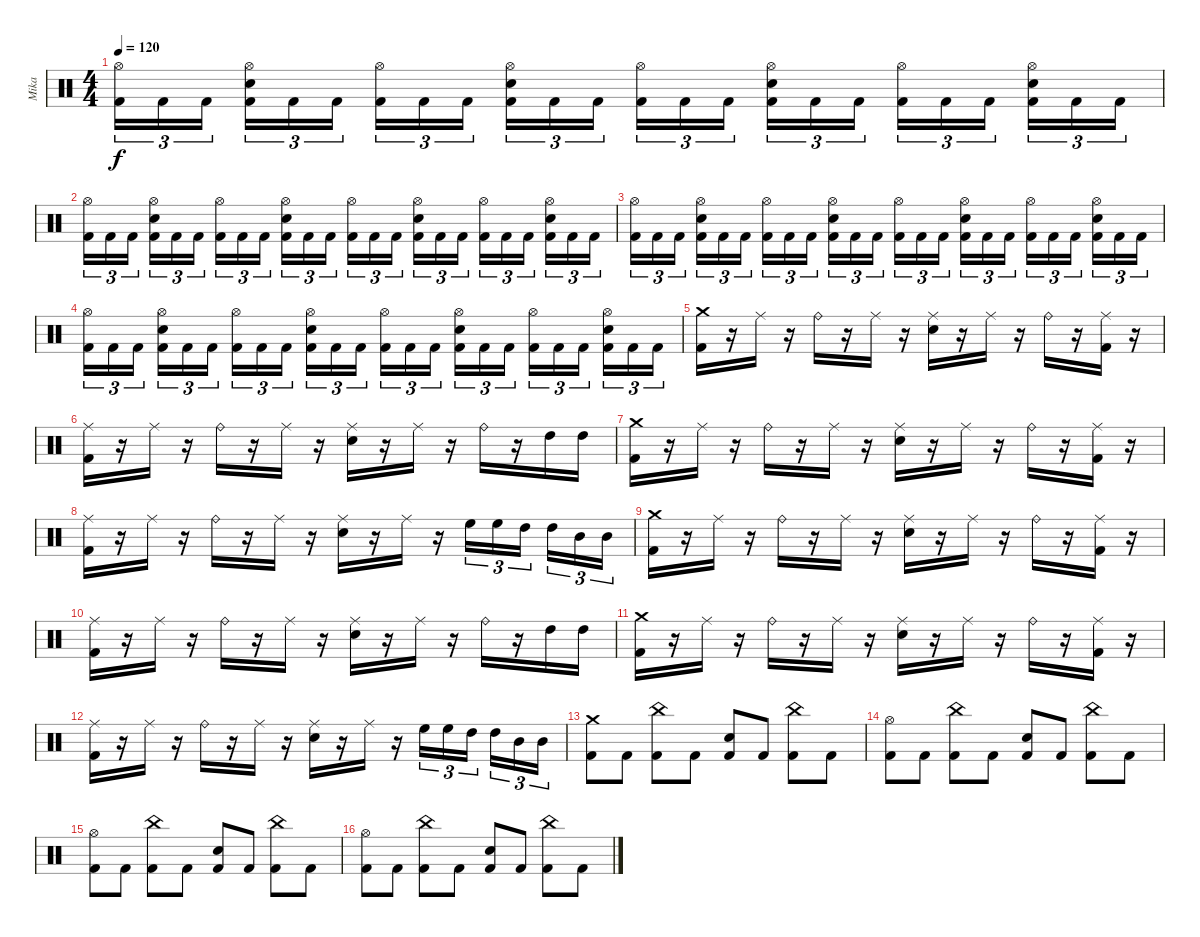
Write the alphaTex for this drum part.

\track ("Mika" "Mika") {instrument percussion}
\staff {score}
\articulation defaults
\ts (4 4)
\tempo 120
\clef neutral
\ks c
("Hi-Hat (open)" "Kick (hit) 2").16{tu (3 2) dy f} "Kick (hit) 2".16{tu (3 2)} "Kick (hit) 2".16{tu (3 2) beam splitsecondary} ("Hi-Hat (open)" "Electric Snare (hit)" "Kick (hit) 2").16{tu (3 2)} "Kick (hit) 2".16{tu (3 2)} "Kick (hit) 2".16{tu (3 2)} ("Hi-Hat (open)" "Kick (hit) 2").16{tu (3 2)} "Kick (hit) 2".16{tu (3 2)} "Kick (hit) 2".16{tu (3 2) beam splitsecondary} ("Hi-Hat (open)" "Electric Snare (hit)" "Kick (hit) 2").16{tu (3 2)} "Kick (hit) 2".16{tu (3 2)} "Kick (hit) 2".16{tu (3 2)} ("Hi-Hat (open)" "Kick (hit) 2").16{tu (3 2)} "Kick (hit) 2".16{tu (3 2)} "Kick (hit) 2".16{tu (3 2) beam splitsecondary} ("Hi-Hat (open)" "Electric Snare (hit)" "Kick (hit) 2").16{tu (3 2)} "Kick (hit) 2".16{tu (3 2)} "Kick (hit) 2".16{tu (3 2)} ("Hi-Hat (open)" "Kick (hit) 2").16{tu (3 2)} "Kick (hit) 2".16{tu (3 2)} "Kick (hit) 2".16{tu (3 2) beam splitsecondary} ("Hi-Hat (open)" "Electric Snare (hit)" "Kick (hit) 2").16{tu (3 2)} "Kick (hit) 2".16{tu (3 2)} "Kick (hit) 2".16{tu (3 2)} |
("Hi-Hat (open)" "Kick (hit) 2").16{tu (3 2)} "Kick (hit) 2".16{tu (3 2)} "Kick (hit) 2".16{tu (3 2) beam splitsecondary} ("Hi-Hat (open)" "Electric Snare (hit)" "Kick (hit) 2").16{tu (3 2)} "Kick (hit) 2".16{tu (3 2)} "Kick (hit) 2".16{tu (3 2)} ("Hi-Hat (open)" "Kick (hit) 2").16{tu (3 2)} "Kick (hit) 2".16{tu (3 2)} "Kick (hit) 2".16{tu (3 2) beam splitsecondary} ("Hi-Hat (open)" "Electric Snare (hit)" "Kick (hit) 2").16{tu (3 2)} "Kick (hit) 2".16{tu (3 2)} "Kick (hit) 2".16{tu (3 2)} ("Hi-Hat (open)" "Kick (hit) 2").16{tu (3 2)} "Kick (hit) 2".16{tu (3 2)} "Kick (hit) 2".16{tu (3 2) beam splitsecondary} ("Hi-Hat (open)" "Electric Snare (hit)" "Kick (hit) 2").16{tu (3 2)} "Kick (hit) 2".16{tu (3 2)} "Kick (hit) 2".16{tu (3 2)} ("Hi-Hat (open)" "Kick (hit) 2").16{tu (3 2)} "Kick (hit) 2".16{tu (3 2)} "Kick (hit) 2".16{tu (3 2) beam splitsecondary} ("Hi-Hat (open)" "Electric Snare (hit)" "Kick (hit) 2").16{tu (3 2)} "Kick (hit) 2".16{tu (3 2)} "Kick (hit) 2".16{tu (3 2)} |
("Hi-Hat (open)" "Kick (hit) 2").16{tu (3 2)} "Kick (hit) 2".16{tu (3 2)} "Kick (hit) 2".16{tu (3 2) beam splitsecondary} ("Hi-Hat (open)" "Electric Snare (hit)" "Kick (hit) 2").16{tu (3 2)} "Kick (hit) 2".16{tu (3 2)} "Kick (hit) 2".16{tu (3 2)} ("Hi-Hat (open)" "Kick (hit) 2").16{tu (3 2)} "Kick (hit) 2".16{tu (3 2)} "Kick (hit) 2".16{tu (3 2) beam splitsecondary} ("Hi-Hat (open)" "Electric Snare (hit)" "Kick (hit) 2").16{tu (3 2)} "Kick (hit) 2".16{tu (3 2)} "Kick (hit) 2".16{tu (3 2)} ("Hi-Hat (open)" "Kick (hit) 2").16{tu (3 2)} "Kick (hit) 2".16{tu (3 2)} "Kick (hit) 2".16{tu (3 2) beam splitsecondary} ("Hi-Hat (open)" "Electric Snare (hit)" "Kick (hit) 2").16{tu (3 2)} "Kick (hit) 2".16{tu (3 2)} "Kick (hit) 2".16{tu (3 2)} ("Hi-Hat (open)" "Kick (hit) 2").16{tu (3 2)} "Kick (hit) 2".16{tu (3 2)} "Kick (hit) 2".16{tu (3 2) beam splitsecondary} ("Hi-Hat (open)" "Electric Snare (hit)" "Kick (hit) 2").16{tu (3 2)} "Kick (hit) 2".16{tu (3 2)} "Kick (hit) 2".16{tu (3 2)} |
("Hi-Hat (open)" "Kick (hit) 2").16{tu (3 2)} "Kick (hit) 2".16{tu (3 2)} "Kick (hit) 2".16{tu (3 2) beam splitsecondary} ("Hi-Hat (open)" "Electric Snare (hit)" "Kick (hit) 2").16{tu (3 2)} "Kick (hit) 2".16{tu (3 2)} "Kick (hit) 2".16{tu (3 2)} ("Hi-Hat (open)" "Kick (hit) 2").16{tu (3 2)} "Kick (hit) 2".16{tu (3 2)} "Kick (hit) 2".16{tu (3 2) beam splitsecondary} ("Hi-Hat (open)" "Electric Snare (hit)" "Kick (hit) 2").16{tu (3 2)} "Kick (hit) 2".16{tu (3 2)} "Kick (hit) 2".16{tu (3 2)} ("Hi-Hat (open)" "Kick (hit) 2").16{tu (3 2)} "Kick (hit) 2".16{tu (3 2)} "Kick (hit) 2".16{tu (3 2) beam splitsecondary} ("Hi-Hat (open)" "Electric Snare (hit)" "Kick (hit) 2").16{tu (3 2)} "Kick (hit) 2".16{tu (3 2)} "Kick (hit) 2".16{tu (3 2)} ("Hi-Hat (open)" "Kick (hit) 2").16{tu (3 2)} "Kick (hit) 2".16{tu (3 2)} "Kick (hit) 2".16{tu (3 2) beam splitsecondary} ("Hi-Hat (open)" "Electric Snare (hit)" "Kick (hit) 2").16{tu (3 2)} "Kick (hit) 2".16{tu (3 2)} "Kick (hit) 2".16{tu (3 2)} |
("Crash medium (hit)" "Kick (hit) 2").16 r.16 "Ride (middle)".16 r.16 "Ride (bell)".16 r.16 "Ride (middle)".16 r.16 ("Ride (middle)" "Electric Snare (hit)").16 r.16 "Ride (middle)".16 r.16 "Ride (bell)".16 r.16 ("Ride (middle)" "Kick (hit) 2").16 r.16 |
("Ride (middle)" "Kick (hit) 2").16 r.16 "Ride (middle)".16 r.16 "Ride (bell)".16 r.16 "Ride (middle)".16 r.16 ("Ride (middle)" "Electric Snare (hit)").16 r.16 "Ride (middle)".16 r.16 "Ride (bell)".16 r.16 "High Tom (hit)".16 "High Tom (hit)".16 |
("Crash medium (hit)" "Kick (hit) 2").16 r.16 "Ride (middle)".16 r.16 "Ride (bell)".16 r.16 "Ride (middle)".16 r.16 ("Ride (middle)" "Electric Snare (hit)").16 r.16 "Ride (middle)".16 r.16 "Ride (bell)".16 r.16 ("Ride (middle)" "Kick (hit) 2").16 r.16 |
("Ride (middle)" "Kick (hit) 2").16 r.16 "Ride (middle)".16 r.16 "Ride (bell)".16 r.16 "Ride (middle)".16 r.16 ("Ride (middle)" "Electric Snare (hit)").16 r.16 "Ride (middle)".16 r.16 "High Floor Tom (hit)".16{tu (3 2)} "High Floor Tom (hit)".16{tu (3 2)} "High Tom (hit)".16{tu (3 2) beam splitsecondary} "High Tom (hit)".16{tu (3 2)} "Mid Tom (hit)".16{tu (3 2)} "Mid Tom (hit)".16{tu (3 2)} |
("Crash medium (hit)" "Kick (hit) 2").16 r.16 "Ride (middle)".16 r.16 "Ride (bell)".16 r.16 "Ride (middle)".16 r.16 ("Ride (middle)" "Electric Snare (hit)").16 r.16 "Ride (middle)".16 r.16 "Ride (bell)".16 r.16 ("Ride (middle)" "Kick (hit) 2").16 r.16 |
("Ride (middle)" "Kick (hit) 2").16 r.16 "Ride (middle)".16 r.16 "Ride (bell)".16 r.16 "Ride (middle)".16 r.16 ("Ride (middle)" "Electric Snare (hit)").16 r.16 "Ride (middle)".16 r.16 "Ride (bell)".16 r.16 "High Tom (hit)".16 "High Tom (hit)".16 |
("Crash medium (hit)" "Kick (hit) 2").16 r.16 "Ride (middle)".16 r.16 "Ride (bell)".16 r.16 "Ride (middle)".16 r.16 ("Ride (middle)" "Electric Snare (hit)").16 r.16 "Ride (middle)".16 r.16 "Ride (bell)".16 r.16 ("Ride (middle)" "Kick (hit) 2").16 r.16 |
("Ride (middle)" "Kick (hit) 2").16 r.16 "Ride (middle)".16 r.16 "Ride (bell)".16 r.16 "Ride (middle)".16 r.16 ("Ride (middle)" "Electric Snare (hit)").16 r.16 "Ride (middle)".16 r.16 "High Floor Tom (hit)".16{tu (3 2)} "High Floor Tom (hit)".16{tu (3 2)} "High Tom (hit)".16{tu (3 2) beam splitsecondary} "High Tom (hit)".16{tu (3 2)} "Mid Tom (hit)".16{tu (3 2)} "Mid Tom (hit)".16{tu (3 2)} |
("Crash medium (hit)" "Kick (hit) 2").8 "Kick (hit) 2".8 ("China (hit)" "Kick (hit) 2").8 "Kick (hit) 2".8 ("Electric Snare (hit)" "Kick (hit) 2").8 "Kick (hit) 2".8 ("China (hit)" "Kick (hit) 2").8 "Kick (hit) 2".8 |
("Hi-Hat (open)" "Kick (hit) 2").8 "Kick (hit) 2".8 ("China (hit)" "Kick (hit) 2").8 "Kick (hit) 2".8 ("Electric Snare (hit)" "Kick (hit) 2").8 "Kick (hit) 2".8 ("China (hit)" "Kick (hit) 2").8 "Kick (hit) 2".8 |
("Hi-Hat (open)" "Kick (hit) 2").8 "Kick (hit) 2".8 ("China (hit)" "Kick (hit) 2").8 "Kick (hit) 2".8 ("Electric Snare (hit)" "Kick (hit) 2").8 "Kick (hit) 2".8 ("China (hit)" "Kick (hit) 2").8 "Kick (hit) 2".8 |
("Hi-Hat (open)" "Kick (hit) 2").8 "Kick (hit) 2".8 ("China (hit)" "Kick (hit) 2").8 "Kick (hit) 2".8 ("Electric Snare (hit)" "Kick (hit) 2").8 "Kick (hit) 2".8 ("China (hit)" "Kick (hit) 2").8 "Kick (hit) 2".8
